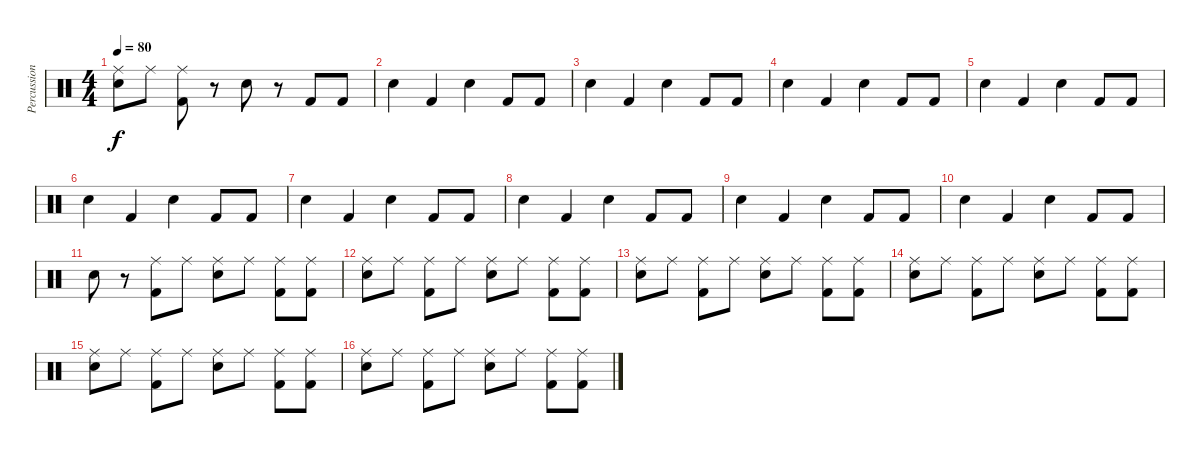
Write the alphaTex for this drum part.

\track ("Percussions" "Percussion") {instrument percussion}
\staff {score}
\articulation defaults
\ts (4 4)
\tempo 80
\clef neutral
\ks c
("Ride (middle)" "Snare (hit) 2").8{dy f} "Ride (middle)".8 ("Ride (middle)" "Kick (hit) 2").8 r.8 "Snare (hit) 2".8 r.8 "Kick (hit) 2".8 "Kick (hit) 2".8 |
"Snare (hit) 2".4 "Kick (hit) 2".4 "Snare (hit) 2".4 "Kick (hit) 2".8 "Kick (hit) 2".8 |
"Snare (hit) 2".4 "Kick (hit) 2".4 "Snare (hit) 2".4 "Kick (hit) 2".8 "Kick (hit) 2".8 |
"Snare (hit) 2".4 "Kick (hit) 2".4 "Snare (hit) 2".4 "Kick (hit) 2".8 "Kick (hit) 2".8 |
"Snare (hit) 2".4 "Kick (hit) 2".4 "Snare (hit) 2".4 "Kick (hit) 2".8 "Kick (hit) 2".8 |
"Snare (hit) 2".4 "Kick (hit) 2".4 "Snare (hit) 2".4 "Kick (hit) 2".8 "Kick (hit) 2".8 |
"Snare (hit) 2".4 "Kick (hit) 2".4 "Snare (hit) 2".4 "Kick (hit) 2".8 "Kick (hit) 2".8 |
"Snare (hit) 2".4 "Kick (hit) 2".4 "Snare (hit) 2".4 "Kick (hit) 2".8 "Kick (hit) 2".8 |
"Snare (hit) 2".4 "Kick (hit) 2".4 "Snare (hit) 2".4 "Kick (hit) 2".8 "Kick (hit) 2".8 |
"Snare (hit) 2".4 "Kick (hit) 2".4 "Snare (hit) 2".4 "Kick (hit) 2".8 "Kick (hit) 2".8 |
"Snare (hit) 2".8 r.8 ("Ride (middle)" "Kick (hit) 2").8 "Ride (middle)".8 ("Ride (middle)" "Snare (hit) 2").8 "Ride (middle)".8 ("Ride (middle)" "Kick (hit) 2").8 ("Ride (middle)" "Kick (hit) 2").8 |
("Ride (middle)" "Snare (hit) 2").8 "Ride (middle)".8 ("Ride (middle)" "Kick (hit) 2").8 "Ride (middle)".8 ("Ride (middle)" "Snare (hit) 2").8 "Ride (middle)".8 ("Ride (middle)" "Kick (hit) 2").8 ("Ride (middle)" "Kick (hit) 2").8 |
("Ride (middle)" "Snare (hit) 2").8 "Ride (middle)".8 ("Ride (middle)" "Kick (hit) 2").8 "Ride (middle)".8 ("Ride (middle)" "Snare (hit) 2").8 "Ride (middle)".8 ("Ride (middle)" "Kick (hit) 2").8 ("Ride (middle)" "Kick (hit) 2").8 |
("Ride (middle)" "Snare (hit) 2").8 "Ride (middle)".8 ("Ride (middle)" "Kick (hit) 2").8 "Ride (middle)".8 ("Ride (middle)" "Snare (hit) 2").8 "Ride (middle)".8 ("Ride (middle)" "Kick (hit) 2").8 ("Ride (middle)" "Kick (hit) 2").8 |
("Ride (middle)" "Snare (hit) 2").8 "Ride (middle)".8 ("Ride (middle)" "Kick (hit) 2").8 "Ride (middle)".8 ("Ride (middle)" "Snare (hit) 2").8 "Ride (middle)".8 ("Ride (middle)" "Kick (hit) 2").8 ("Ride (middle)" "Kick (hit) 2").8 |
("Ride (middle)" "Snare (hit) 2").8 "Ride (middle)".8 ("Ride (middle)" "Kick (hit) 2").8 "Ride (middle)".8 ("Ride (middle)" "Snare (hit) 2").8 "Ride (middle)".8 ("Ride (middle)" "Kick (hit) 2").8 ("Ride (middle)" "Kick (hit) 2").8
